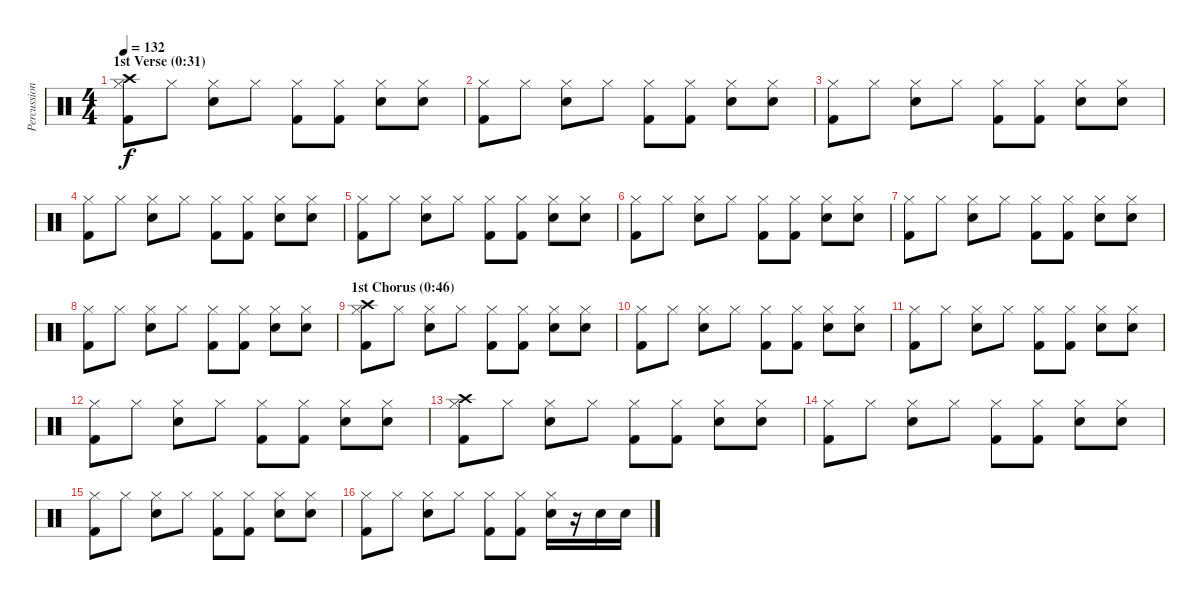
\track ("Percussions" "Percussion") {instrument percussion}
\staff {score}
\articulation defaults
\ts (4 4)
\section ("" "1st Verse (0:31)")
\tempo 132
\clef neutral
\ks c
("Hi-Hat (closed)" "Crash high (hit)" "Kick (hit) 2").8{dy f} "Hi-Hat (closed)".8 ("Hi-Hat (closed)" "Snare (hit) 2").8 "Hi-Hat (closed)".8 ("Hi-Hat (closed)" "Kick (hit) 2").8 ("Hi-Hat (closed)" "Kick (hit) 2").8 ("Hi-Hat (closed)" "Snare (hit) 2").8 ("Hi-Hat (closed)" "Snare (hit) 2").8 |
("Hi-Hat (closed)" "Kick (hit) 2").8 "Hi-Hat (closed)".8 ("Hi-Hat (closed)" "Snare (hit) 2").8 "Hi-Hat (closed)".8 ("Hi-Hat (closed)" "Kick (hit) 2").8 ("Hi-Hat (closed)" "Kick (hit) 2").8 ("Hi-Hat (closed)" "Snare (hit) 2").8 ("Hi-Hat (closed)" "Snare (hit) 2").8 |
("Hi-Hat (closed)" "Kick (hit) 2").8 "Hi-Hat (closed)".8 ("Hi-Hat (closed)" "Snare (hit) 2").8 "Hi-Hat (closed)".8 ("Hi-Hat (closed)" "Kick (hit) 2").8 ("Hi-Hat (closed)" "Kick (hit) 2").8 ("Hi-Hat (closed)" "Snare (hit) 2").8 ("Hi-Hat (closed)" "Snare (hit) 2").8 |
("Hi-Hat (closed)" "Kick (hit) 2").8 "Hi-Hat (closed)".8 ("Hi-Hat (closed)" "Snare (hit) 2").8 "Hi-Hat (closed)".8 ("Hi-Hat (closed)" "Kick (hit) 2").8 ("Hi-Hat (closed)" "Kick (hit) 2").8 ("Hi-Hat (closed)" "Snare (hit) 2").8 ("Hi-Hat (closed)" "Snare (hit) 2").8 |
("Hi-Hat (closed)" "Kick (hit) 2").8 "Hi-Hat (closed)".8 ("Hi-Hat (closed)" "Snare (hit) 2").8 "Hi-Hat (closed)".8 ("Hi-Hat (closed)" "Kick (hit) 2").8 ("Hi-Hat (closed)" "Kick (hit) 2").8 ("Hi-Hat (closed)" "Snare (hit) 2").8 ("Hi-Hat (closed)" "Snare (hit) 2").8 |
("Hi-Hat (closed)" "Kick (hit) 2").8 "Hi-Hat (closed)".8 ("Hi-Hat (closed)" "Snare (hit) 2").8 "Hi-Hat (closed)".8 ("Hi-Hat (closed)" "Kick (hit) 2").8 ("Hi-Hat (closed)" "Kick (hit) 2").8 ("Hi-Hat (closed)" "Snare (hit) 2").8 ("Hi-Hat (closed)" "Snare (hit) 2").8 |
("Hi-Hat (closed)" "Kick (hit) 2").8 "Hi-Hat (closed)".8 ("Hi-Hat (closed)" "Snare (hit) 2").8 "Hi-Hat (closed)".8 ("Hi-Hat (closed)" "Kick (hit) 2").8 ("Hi-Hat (closed)" "Kick (hit) 2").8 ("Hi-Hat (closed)" "Snare (hit) 2").8 ("Hi-Hat (closed)" "Snare (hit) 2").8 |
("Hi-Hat (closed)" "Kick (hit) 2").8 "Hi-Hat (closed)".8 ("Hi-Hat (closed)" "Snare (hit) 2").8 "Hi-Hat (closed)".8 ("Hi-Hat (closed)" "Kick (hit) 2").8 ("Hi-Hat (closed)" "Kick (hit) 2").8 ("Hi-Hat (closed)" "Snare (hit) 2").8 ("Hi-Hat (closed)" "Snare (hit) 2").8 |
\section ("" "1st Chorus (0:46)")
("Hi-Hat (closed)" "Crash high (hit)" "Kick (hit) 2").8 "Hi-Hat (closed)".8 ("Hi-Hat (closed)" "Snare (hit) 2").8 "Hi-Hat (closed)".8 ("Hi-Hat (closed)" "Kick (hit) 2").8 ("Hi-Hat (closed)" "Kick (hit) 2").8 ("Hi-Hat (closed)" "Snare (hit) 2").8 ("Hi-Hat (closed)" "Snare (hit) 2").8 |
("Hi-Hat (closed)" "Kick (hit) 2").8 "Hi-Hat (closed)".8 ("Hi-Hat (closed)" "Snare (hit) 2").8 "Hi-Hat (closed)".8 ("Hi-Hat (closed)" "Kick (hit) 2").8 ("Hi-Hat (closed)" "Kick (hit) 2").8 ("Hi-Hat (closed)" "Snare (hit) 2").8 ("Hi-Hat (closed)" "Snare (hit) 2").8 |
("Hi-Hat (closed)" "Kick (hit) 2").8 "Hi-Hat (closed)".8 ("Hi-Hat (closed)" "Snare (hit) 2").8 "Hi-Hat (closed)".8 ("Hi-Hat (closed)" "Kick (hit) 2").8 ("Hi-Hat (closed)" "Kick (hit) 2").8 ("Hi-Hat (closed)" "Snare (hit) 2").8 ("Hi-Hat (closed)" "Snare (hit) 2").8 |
("Hi-Hat (closed)" "Kick (hit) 2").8 "Hi-Hat (closed)".8 ("Hi-Hat (closed)" "Snare (hit) 2").8 "Hi-Hat (closed)".8 ("Hi-Hat (closed)" "Kick (hit) 2").8 ("Hi-Hat (closed)" "Kick (hit) 2").8 ("Hi-Hat (closed)" "Snare (hit) 2").8 ("Hi-Hat (closed)" "Snare (hit) 2").8 |
("Hi-Hat (closed)" "Crash high (hit)" "Kick (hit) 2").8 "Hi-Hat (closed)".8 ("Hi-Hat (closed)" "Snare (hit) 2").8 "Hi-Hat (closed)".8 ("Hi-Hat (closed)" "Kick (hit) 2").8 ("Hi-Hat (closed)" "Kick (hit) 2").8 ("Hi-Hat (closed)" "Snare (hit) 2").8 ("Hi-Hat (closed)" "Snare (hit) 2").8 |
("Hi-Hat (closed)" "Kick (hit) 2").8 "Hi-Hat (closed)".8 ("Hi-Hat (closed)" "Snare (hit) 2").8 "Hi-Hat (closed)".8 ("Hi-Hat (closed)" "Kick (hit) 2").8 ("Hi-Hat (closed)" "Kick (hit) 2").8 ("Hi-Hat (closed)" "Snare (hit) 2").8 ("Hi-Hat (closed)" "Snare (hit) 2").8 |
("Hi-Hat (closed)" "Kick (hit) 2").8 "Hi-Hat (closed)".8 ("Hi-Hat (closed)" "Snare (hit) 2").8 "Hi-Hat (closed)".8 ("Hi-Hat (closed)" "Kick (hit) 2").8 ("Hi-Hat (closed)" "Kick (hit) 2").8 ("Hi-Hat (closed)" "Snare (hit) 2").8 ("Hi-Hat (closed)" "Snare (hit) 2").8 |
("Hi-Hat (closed)" "Kick (hit) 2").8 "Hi-Hat (closed)".8 ("Hi-Hat (closed)" "Snare (hit) 2").8 "Hi-Hat (closed)".8 ("Hi-Hat (closed)" "Kick (hit) 2").8 ("Hi-Hat (closed)" "Kick (hit) 2").8 ("Hi-Hat (closed)" "Snare (hit) 2").16 r.16 "Snare (hit) 2".16 "Snare (hit) 2".16
